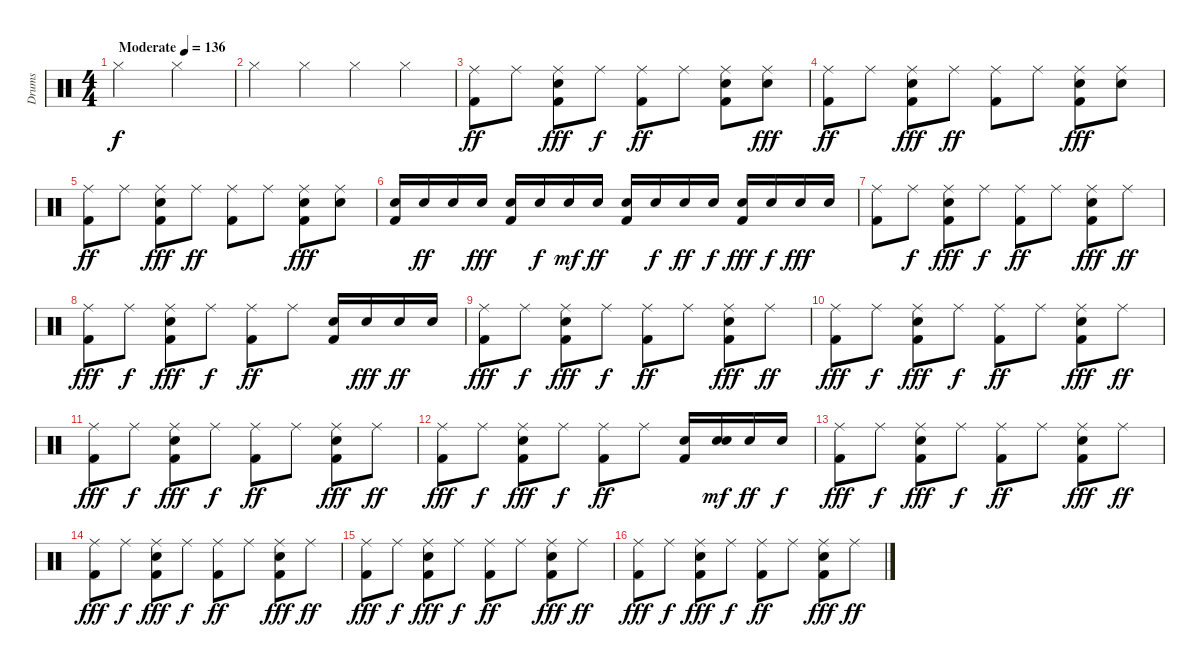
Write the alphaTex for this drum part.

\track ("Drums" "Drums") {instrument percussion}
\staff {score}
\articulation defaults
\ts (4 4)
\tempo (136 "Moderate")
\clef neutral
\ks c "Hi-Hat (closed)".2{dy f} "Hi-Hat (closed)".2
|
"Hi-Hat (closed)".4 "Hi-Hat (closed)".4 "Hi-Hat (closed)".4 "Hi-Hat (closed)".4 |
("Kick (hit) 2" "Ride (middle)").8{dy ff} "Ride (middle)".8 ("Kick (hit) 2" "Electric Snare (hit)" "Ride (middle)").8{dy fff} "Ride (middle)".8{dy f} ("Kick (hit) 2" "Ride (middle)").8{dy ff} "Ride (middle)".8 ("Kick (hit) 2" "Electric Snare (hit)" "Ride (middle)").8 ("Electric Snare (hit)" "Ride (middle)").8{dy fff} |
("Kick (hit) 2" "Ride (middle)").8{dy ff} "Ride (middle)".8 ("Kick (hit) 2" "Electric Snare (hit)" "Ride (middle)").8{dy fff} "Ride (middle)".8{dy ff} ("Kick (hit) 2" "Ride (middle)").8 "Ride (middle)".8 ("Kick (hit) 2" "Electric Snare (hit)" "Ride (middle)").8{dy fff} ("Electric Snare (hit)" "Ride (middle)").8 |
("Kick (hit) 2" "Ride (middle)").8{dy ff} "Ride (middle)".8 ("Kick (hit) 2" "Electric Snare (hit)" "Ride (middle)").8{dy fff} "Ride (middle)".8{dy ff} ("Kick (hit) 2" "Ride (middle)").8 "Ride (middle)".8 ("Kick (hit) 2" "Electric Snare (hit)" "Ride (middle)").8{dy fff} ("Electric Snare (hit)" "Ride (middle)").8 |
("Kick (hit) 2" "Electric Snare (hit)").16 "Electric Snare (hit)".16{dy ff} "Electric Snare (hit)".16 "Electric Snare (hit)".16{dy fff} ("Kick (hit) 2" "Electric Snare (hit)").16 "Electric Snare (hit)".16{dy f} "Electric Snare (hit)".16{dy mf} "Electric Snare (hit)".16{dy ff} ("Kick (hit) 2" "Snare (hit) 2").16 "Snare (hit) 2".16{dy f} "Snare (hit) 2".16{dy ff} "Snare (hit) 2".16{dy f} ("Kick (hit) 2" "Electric Snare (hit)").16{dy fff} "Electric Snare (hit)".16{dy f} "Electric Snare (hit)".16{dy fff} "Electric Snare (hit)".16 |
("Kick (hit) 2" "Ride (middle)").8 "Ride (middle)".8{dy f} ("Kick (hit) 2" "Electric Snare (hit)" "Ride (middle)").8{dy fff} "Ride (middle)".8{dy f} ("Kick (hit) 2" "Ride (middle)").8{dy ff} "Ride (middle)".8 ("Kick (hit) 2" "Electric Snare (hit)" "Ride (middle)").8{dy fff} "Ride (middle)".8{dy ff} |
("Kick (hit) 2" "Ride (middle)").8{dy fff} "Ride (middle)".8{dy f} ("Kick (hit) 2" "Electric Snare (hit)" "Ride (middle)").8{dy fff} "Ride (middle)".8{dy f} ("Kick (hit) 2" "Ride (middle)").8{dy ff} "Ride (middle)".8 ("Kick (hit) 2" "Electric Snare (hit)").16 "Electric Snare (hit)".16{dy fff} "Electric Snare (hit)".16{dy ff} "Electric Snare (hit)".16 |
("Kick (hit) 2" "Ride (middle)").8{dy fff} "Ride (middle)".8{dy f} ("Kick (hit) 2" "Electric Snare (hit)" "Ride (middle)").8{dy fff} "Ride (middle)".8{dy f} ("Kick (hit) 2" "Ride (middle)").8{dy ff} "Ride (middle)".8 ("Kick (hit) 2" "Electric Snare (hit)" "Ride (middle)").8{dy fff} "Ride (middle)".8{dy ff} |
("Kick (hit) 2" "Ride (middle)").8{dy fff} "Ride (middle)".8{dy f} ("Kick (hit) 2" "Electric Snare (hit)" "Ride (middle)").8{dy fff} "Ride (middle)".8{dy f} ("Kick (hit) 2" "Ride (middle)").8{dy ff} "Ride (middle)".8 ("Kick (hit) 2" "Electric Snare (hit)" "Ride (middle)").8{dy fff} "Ride (middle)".8{dy ff} |
("Kick (hit) 2" "Ride (middle)").8{dy fff} "Ride (middle)".8{dy f} ("Kick (hit) 2" "Electric Snare (hit)" "Ride (middle)").8{dy fff} "Ride (middle)".8{dy f} ("Kick (hit) 2" "Ride (middle)").8{dy ff} "Ride (middle)".8 ("Kick (hit) 2" "Electric Snare (hit)" "Ride (middle)").8{dy fff} "Ride (middle)".8{dy ff} |
("Kick (hit) 2" "Ride (middle)").8{dy fff} "Ride (middle)".8{dy f} ("Kick (hit) 2" "Electric Snare (hit)" "Ride (middle)").8{dy fff} "Ride (middle)".8{dy f} ("Kick (hit) 2" "Ride (middle)").8{dy ff} "Ride (middle)".8 ("Kick (hit) 2" "Electric Snare (hit)").16 ("Snare (hit) 2" "Electric Snare (hit)").16{dy mf} "Electric Snare (hit)".16{dy ff} "Electric Snare (hit)".16{dy f} |
("Kick (hit) 2" "Ride (middle)").8{dy fff} "Ride (middle)".8{dy f} ("Kick (hit) 2" "Electric Snare (hit)" "Ride (middle)").8{dy fff} "Ride (middle)".8{dy f} ("Kick (hit) 2" "Ride (middle)").8{dy ff} "Ride (middle)".8 ("Kick (hit) 2" "Electric Snare (hit)" "Ride (middle)").8{dy fff} "Ride (middle)".8{dy ff} |
("Kick (hit) 2" "Ride (middle)").8{dy fff} "Ride (middle)".8{dy f} ("Kick (hit) 2" "Electric Snare (hit)" "Ride (middle)").8{dy fff} "Ride (middle)".8{dy f} ("Kick (hit) 2" "Ride (middle)").8{dy ff} "Ride (middle)".8 ("Kick (hit) 2" "Electric Snare (hit)" "Ride (middle)").8{dy fff} "Ride (middle)".8{dy ff} |
("Kick (hit) 2" "Ride (middle)").8{dy fff} "Ride (middle)".8{dy f} ("Kick (hit) 2" "Electric Snare (hit)" "Ride (middle)").8{dy fff} "Ride (middle)".8{dy f} ("Kick (hit) 2" "Ride (middle)").8{dy ff} "Ride (middle)".8 ("Kick (hit) 2" "Electric Snare (hit)" "Ride (middle)").8{dy fff} "Ride (middle)".8{dy ff} |
("Kick (hit) 2" "Ride (middle)").8{dy fff} "Ride (middle)".8{dy f} ("Kick (hit) 2" "Electric Snare (hit)" "Ride (middle)").8{dy fff} "Ride (middle)".8{dy f} ("Kick (hit) 2" "Ride (middle)").8{dy ff} "Ride (middle)".8 ("Kick (hit) 2" "Electric Snare (hit)" "Ride (middle)").8{dy fff} "Ride (middle)".8{dy ff}
